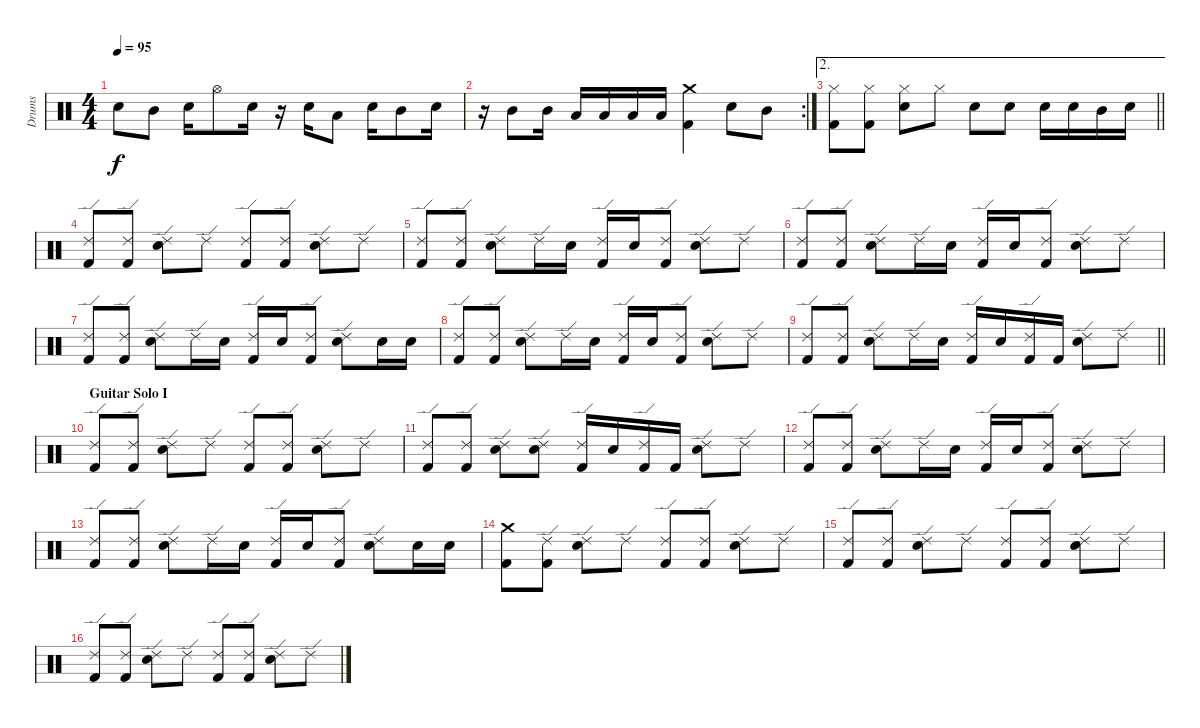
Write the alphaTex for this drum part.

\track ("Drums" "Drums") {instrument percussion}
\staff {score}
\articulation defaults
\ts (4 4)
\tempo 95
\clef neutral
\ks c "Snare (hit) 2".8{dy f} "Mid Tom (hit)".8 "Snare (hit) 2".16 "Hi-Hat (open)".8 "Snare (hit) 2".16
r.16 "Snare (hit) 2".16 "Low Tom (hit)".8 "Snare (hit) 2".16 "Mid Tom (hit)".8 "Snare (hit) 2".16 |
\rc 2
r.16 "Mid Tom (hit)".8 "Mid Tom (hit)".16 "Low Tom (hit)".16 "Low Tom (hit)".16 "Low Tom (hit)".16 "Low Tom (hit)".16 ("Crash medium (hit)" "Kick (hit) 2").4 "Snare (hit) 2".8 "Mid Tom (hit)".8 |
\ae 2
\barLineRight lightlight
("Hi-Hat (closed)" "Kick (hit) 2").8 ("Hi-Hat (closed)" "Kick (hit) 2").8 ("Hi-Hat (closed)" "Snare (hit) 2").8 "Hi-Hat (closed)".8 "Snare (hit) 2".8 "Snare (hit) 2".8 "Snare (hit) 2".16 "Snare (hit) 2".16 "Mid Tom (hit)".16 "Snare (hit) 2".16 |
("Ride (edge) 2" "Kick (hit) 2").8 ("Ride (edge) 2" "Kick (hit) 2").8 ("Ride (edge) 2" "Snare (hit) 2").8 "Ride (edge) 2".8 ("Ride (edge) 2" "Kick (hit) 2").8 ("Ride (edge) 2" "Kick (hit) 2").8 ("Ride (edge) 2" "Snare (hit) 2").8 "Ride (edge) 2".8 |
("Ride (edge) 2" "Kick (hit) 2").8 ("Ride (edge) 2" "Kick (hit) 2").8 ("Ride (edge) 2" "Snare (hit) 2").8 "Ride (edge) 2".16 "Snare (hit) 2".16 ("Ride (edge) 2" "Kick (hit) 2").16 "Snare (hit) 2".16 ("Ride (edge) 2" "Kick (hit) 2").8 ("Ride (edge) 2" "Snare (hit) 2").8 "Ride (edge) 2".8 |
("Ride (edge) 2" "Kick (hit) 2").8 ("Ride (edge) 2" "Kick (hit) 2").8 ("Ride (edge) 2" "Snare (hit) 2").8 "Ride (edge) 2".16 "Snare (hit) 2".16 ("Ride (edge) 2" "Kick (hit) 2").16 "Snare (hit) 2".16 ("Ride (edge) 2" "Kick (hit) 2").8 ("Ride (edge) 2" "Snare (hit) 2").8 "Ride (edge) 2".8 |
("Ride (edge) 2" "Kick (hit) 2").8 ("Ride (edge) 2" "Kick (hit) 2").8 ("Ride (edge) 2" "Snare (hit) 2").8 "Ride (edge) 2".16 "Snare (hit) 2".16 ("Ride (edge) 2" "Kick (hit) 2").16 "Snare (hit) 2".16 ("Ride (edge) 2" "Kick (hit) 2").8 ("Ride (edge) 2" "Snare (hit) 2").8 "Snare (hit) 2".16 "Snare (hit) 2".16 |
("Ride (edge) 2" "Kick (hit) 2").8 ("Ride (edge) 2" "Kick (hit) 2").8 ("Ride (edge) 2" "Snare (hit) 2").8 "Ride (edge) 2".16 "Snare (hit) 2".16 ("Ride (edge) 2" "Kick (hit) 2").16 "Snare (hit) 2".16 ("Ride (edge) 2" "Kick (hit) 2").8 ("Ride (edge) 2" "Snare (hit) 2").8 "Ride (edge) 2".8 |
\barLineRight lightlight
("Ride (edge) 2" "Kick (hit) 2").8 ("Ride (edge) 2" "Kick (hit) 2").8 ("Ride (edge) 2" "Snare (hit) 2").8 "Ride (edge) 2".16 "Snare (hit) 2".16 ("Ride (edge) 2" "Kick (hit) 2").16 "Snare (hit) 2".16 ("Ride (edge) 2" "Kick (hit) 2").16 "Kick (hit) 2".16 ("Ride (edge) 2" "Snare (hit) 2").8 "Ride (edge) 2".8 |
\section ("" "Guitar Solo I")
("Ride (edge) 2" "Kick (hit) 2").8 ("Ride (edge) 2" "Kick (hit) 2").8 ("Ride (edge) 2" "Snare (hit) 2").8 "Ride (edge) 2".8 ("Ride (edge) 2" "Kick (hit) 2").8 ("Ride (edge) 2" "Kick (hit) 2").8 ("Ride (edge) 2" "Snare (hit) 2").8 "Ride (edge) 2".8 |
("Ride (edge) 2" "Kick (hit) 2").8 ("Ride (edge) 2" "Kick (hit) 2").8 ("Ride (edge) 2" "Snare (hit) 2").8 ("Ride (edge) 2" "Snare (hit) 2").8 ("Ride (edge) 2" "Kick (hit) 2").16 "Snare (hit) 2".16 ("Ride (edge) 2" "Kick (hit) 2").16 "Kick (hit) 2".16 ("Ride (edge) 2" "Snare (hit) 2").8 "Ride (edge) 2".8 |
("Ride (edge) 2" "Kick (hit) 2").8 ("Ride (edge) 2" "Kick (hit) 2").8 ("Ride (edge) 2" "Snare (hit) 2").8 "Ride (edge) 2".16 "Snare (hit) 2".16 ("Ride (edge) 2" "Kick (hit) 2").16 "Snare (hit) 2".16 ("Ride (edge) 2" "Kick (hit) 2").8 ("Ride (edge) 2" "Snare (hit) 2").8 "Ride (edge) 2".8 |
("Ride (edge) 2" "Kick (hit) 2").8 ("Ride (edge) 2" "Kick (hit) 2").8 ("Ride (edge) 2" "Snare (hit) 2").8 "Ride (edge) 2".16 "Snare (hit) 2".16 ("Ride (edge) 2" "Kick (hit) 2").16 "Snare (hit) 2".16 ("Ride (edge) 2" "Kick (hit) 2").8 ("Ride (edge) 2" "Snare (hit) 2").8 "Snare (hit) 2".16 "Snare (hit) 2".16 |
("Crash medium (hit)" "Kick (hit) 2").8 ("Ride (edge) 2" "Kick (hit) 2").8 ("Ride (edge) 2" "Snare (hit) 2").8 "Ride (edge) 2".8 ("Ride (edge) 2" "Kick (hit) 2").8 ("Ride (edge) 2" "Kick (hit) 2").8 ("Ride (edge) 2" "Snare (hit) 2").8 "Ride (edge) 2".8 |
("Ride (edge) 2" "Kick (hit) 2").8 ("Ride (edge) 2" "Kick (hit) 2").8 ("Ride (edge) 2" "Snare (hit) 2").8 "Ride (edge) 2".8 ("Ride (edge) 2" "Kick (hit) 2").8 ("Ride (edge) 2" "Kick (hit) 2").8 ("Ride (edge) 2" "Snare (hit) 2").8 "Ride (edge) 2".8 |
("Ride (edge) 2" "Kick (hit) 2").8 ("Ride (edge) 2" "Kick (hit) 2").8 ("Ride (edge) 2" "Snare (hit) 2").8 "Ride (edge) 2".8 ("Ride (edge) 2" "Kick (hit) 2").8 ("Ride (edge) 2" "Kick (hit) 2").8 ("Ride (edge) 2" "Snare (hit) 2").8 "Ride (edge) 2".8
